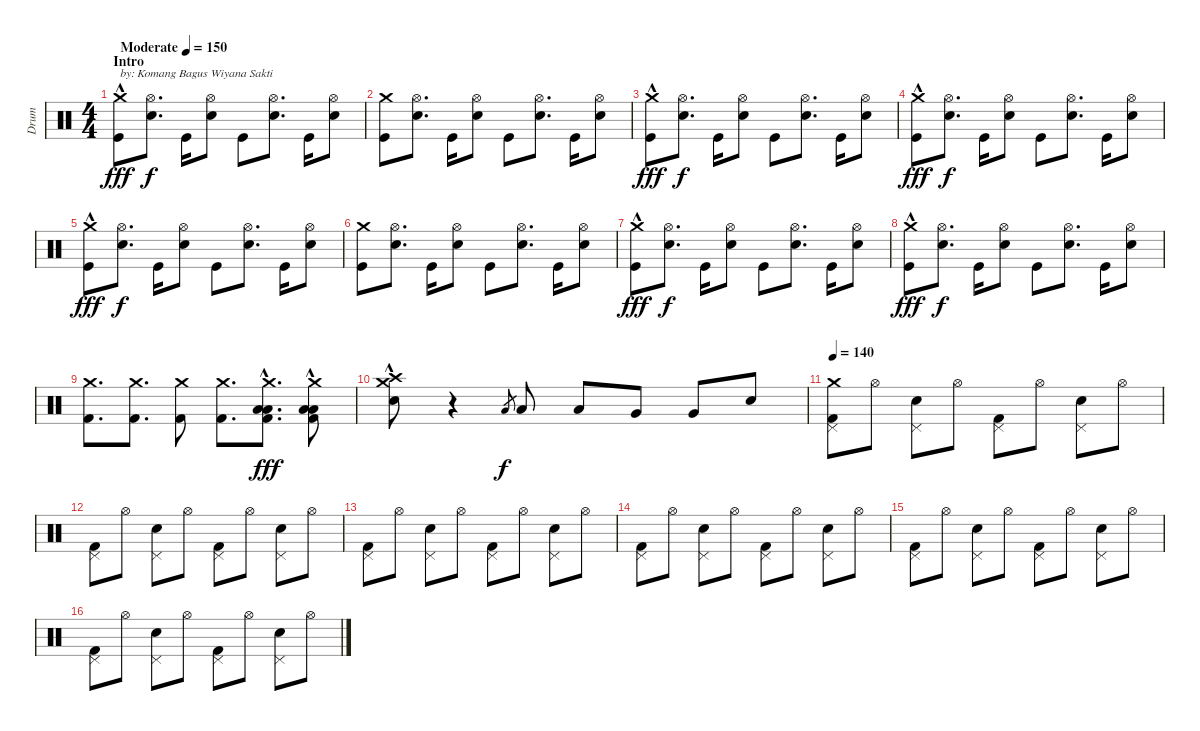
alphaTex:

\track ("Drum" "Drum") {instrument percussion}
\staff {score}
\articulation defaults
\ts (4 4)
\section ("" "Intro")
\tempo (150 "Moderate")
\clef neutral
\ks c
("Crash medium (hit)"{hac} "Kick (hit)").8{txt "by: Komang Bagus Wiyana Sakti" dy fff} ("Hi-Hat (open)" "Electric Snare (hit)").8{d dy f} "Kick (hit)".16 ("Hi-Hat (open)" "Electric Snare (hit)").8 "Kick (hit)".8 ("Hi-Hat (open)" "Electric Snare (hit)").8{d} "Kick (hit)".16 ("Hi-Hat (open)" "Electric Snare (hit)").8 |
("Crash medium (hit)" "Kick (hit)").8 ("Hi-Hat (open)" "Electric Snare (hit)").8{d} "Kick (hit)".16 ("Hi-Hat (open)" "Electric Snare (hit)").8 "Kick (hit)".8 ("Hi-Hat (open)" "Electric Snare (hit)").8{d} "Kick (hit)".16 ("Hi-Hat (open)" "Electric Snare (hit)").8 |
("Crash medium (hit)"{hac} "Kick (hit)").8{dy fff} ("Hi-Hat (open)" "Electric Snare (hit)").8{d dy f} "Kick (hit)".16 ("Hi-Hat (open)" "Electric Snare (hit)").8 "Kick (hit)".8 ("Hi-Hat (open)" "Electric Snare (hit)").8{d} "Kick (hit)".16 ("Hi-Hat (open)" "Electric Snare (hit)").8 |
("Crash medium (hit)"{hac} "Kick (hit)").8{dy fff} ("Hi-Hat (open)" "Electric Snare (hit)").8{d dy f} "Kick (hit)".16 ("Hi-Hat (open)" "Electric Snare (hit)").8 "Kick (hit)".8 ("Hi-Hat (open)" "Electric Snare (hit)").8{d} "Kick (hit)".16 ("Hi-Hat (open)" "Electric Snare (hit)").8 |
("Crash medium (hit)"{hac} "Kick (hit)").8{dy fff} ("Hi-Hat (open)" "Electric Snare (hit)").8{d dy f} "Kick (hit)".16 ("Hi-Hat (open)" "Electric Snare (hit)").8 "Kick (hit)".8 ("Hi-Hat (open)" "Electric Snare (hit)").8{d} "Kick (hit)".16 ("Hi-Hat (open)" "Electric Snare (hit)").8 |
("Crash medium (hit)" "Kick (hit)").8 ("Hi-Hat (open)" "Electric Snare (hit)").8{d} "Kick (hit)".16 ("Hi-Hat (open)" "Electric Snare (hit)").8 "Kick (hit)".8 ("Hi-Hat (open)" "Electric Snare (hit)").8{d} "Kick (hit)".16 ("Hi-Hat (open)" "Electric Snare (hit)").8 |
("Crash medium (hit)"{hac} "Kick (hit)").8{dy fff} ("Hi-Hat (open)" "Electric Snare (hit)").8{d dy f} "Kick (hit)".16 ("Hi-Hat (open)" "Electric Snare (hit)").8 "Kick (hit)".8 ("Hi-Hat (open)" "Electric Snare (hit)").8{d} "Kick (hit)".16 ("Hi-Hat (open)" "Electric Snare (hit)").8 |
("Crash medium (hit)"{hac} "Kick (hit)").8{dy fff} ("Hi-Hat (open)" "Electric Snare (hit)").8{d dy f} "Kick (hit)".16 ("Hi-Hat (open)" "Electric Snare (hit)").8 "Kick (hit)".8 ("Hi-Hat (open)" "Electric Snare (hit)").8{d} "Kick (hit)".16 ("Hi-Hat (open)" "Electric Snare (hit)").8 |
("Crash medium (hit)" "Kick (hit) 2").8{d} ("Crash medium (hit)" "Kick (hit) 2").8{d} ("Crash medium (hit)" "Kick (hit) 2").8 ("Crash medium (hit)" "Kick (hit) 2").8{d} ("Crash medium (hit)" "Low Tom (hit)" "Low Tom (hit)"{hac} "Kick (hit) 2").8{d dy fff} ("Crash medium (hit)" "Low Tom (hit)" "Low Tom (hit)"{hac} "Kick (hit) 2").8 |
("Crash medium (hit)" "Crash high (hit)" "Electric Snare (hit)"{hac}).8 r.4 "Low Tom (hit)".8{gr dy f} "Low Tom (hit)".8 "Low Tom (hit)".8 "Very Low Tom (hit)".8 "Very Low Tom (hit)".8 "Electric Snare (hit)".8 |
\tempo 140
("Crash medium (hit)" "Pedal Hi-Hat (hit)" "Kick (hit) 2").8 "Hi-Hat (open)".8 ("Pedal Hi-Hat (hit)" "Electric Snare (hit)").8 "Hi-Hat (open)".8 ("Pedal Hi-Hat (hit)" "Kick (hit) 2").8 "Hi-Hat (open)".8 ("Pedal Hi-Hat (hit)" "Electric Snare (hit)").8 "Hi-Hat (open)".8 |
("Pedal Hi-Hat (hit)" "Kick (hit) 2").8 "Hi-Hat (open)".8 ("Pedal Hi-Hat (hit)" "Electric Snare (hit)").8 "Hi-Hat (open)".8 ("Pedal Hi-Hat (hit)" "Kick (hit) 2").8 "Hi-Hat (open)".8 ("Pedal Hi-Hat (hit)" "Electric Snare (hit)").8 "Hi-Hat (open)".8 |
("Pedal Hi-Hat (hit)" "Kick (hit) 2").8 "Hi-Hat (open)".8 ("Pedal Hi-Hat (hit)" "Electric Snare (hit)").8 "Hi-Hat (open)".8 ("Pedal Hi-Hat (hit)" "Kick (hit) 2").8 "Hi-Hat (open)".8 ("Pedal Hi-Hat (hit)" "Electric Snare (hit)").8 "Hi-Hat (open)".8 |
("Pedal Hi-Hat (hit)" "Kick (hit) 2").8 "Hi-Hat (open)".8 ("Pedal Hi-Hat (hit)" "Electric Snare (hit)").8 "Hi-Hat (open)".8 ("Pedal Hi-Hat (hit)" "Kick (hit) 2").8 "Hi-Hat (open)".8 ("Pedal Hi-Hat (hit)" "Electric Snare (hit)").8 "Hi-Hat (open)".8 |
("Pedal Hi-Hat (hit)" "Kick (hit) 2").8 "Hi-Hat (open)".8 ("Pedal Hi-Hat (hit)" "Electric Snare (hit)").8 "Hi-Hat (open)".8 ("Pedal Hi-Hat (hit)" "Kick (hit) 2").8 "Hi-Hat (open)".8 ("Pedal Hi-Hat (hit)" "Electric Snare (hit)").8 "Hi-Hat (open)".8 |
("Pedal Hi-Hat (hit)" "Kick (hit) 2").8 "Hi-Hat (open)".8 ("Pedal Hi-Hat (hit)" "Electric Snare (hit)").8 "Hi-Hat (open)".8 ("Pedal Hi-Hat (hit)" "Kick (hit) 2").8 "Hi-Hat (open)".8 ("Pedal Hi-Hat (hit)" "Electric Snare (hit)").8 "Hi-Hat (open)".8
